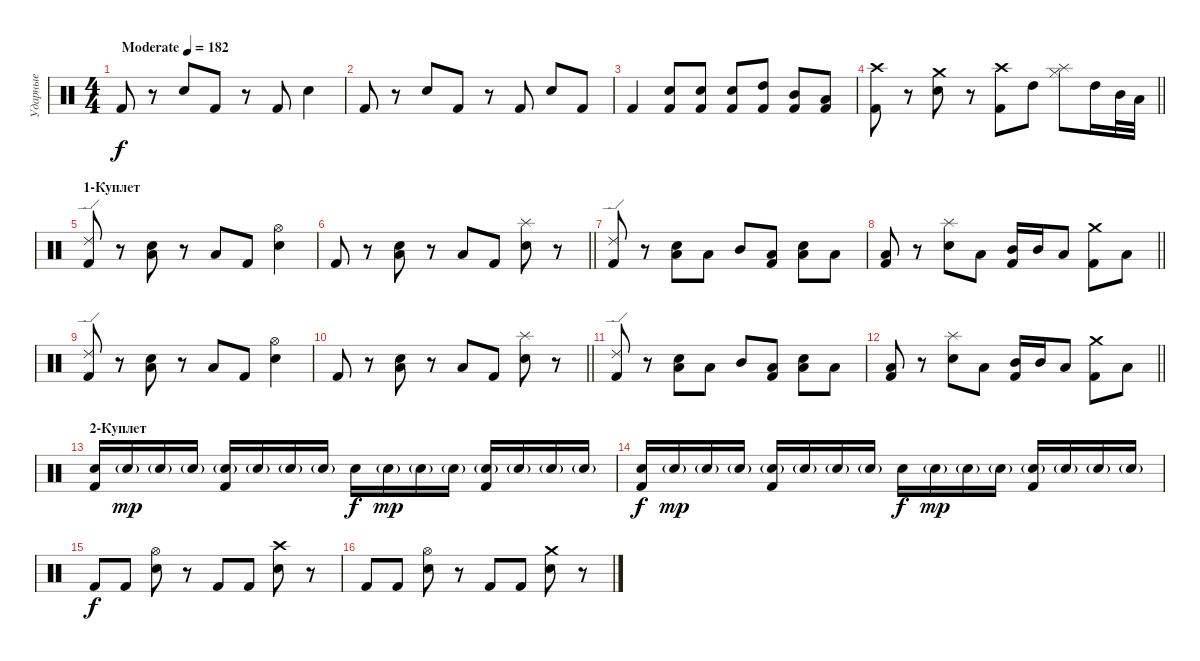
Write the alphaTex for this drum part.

\track ("Ударные" "Ударные") {instrument percussion}
\staff {score}
\articulation defaults
\ts (4 4)
\tempo (182 "Moderate")
\clef neutral
\ks c "Kick (hit) 2".8{dy f}
r.8 "Snare (hit) 2".8 "Kick (hit) 2".8 r.8 "Kick (hit) 2".8 "Snare (hit) 2".4 |
"Kick (hit) 2".8 r.8 "Snare (hit) 2".8 "Kick (hit) 2".8 r.8 "Kick (hit) 2".8 "Snare (hit) 2".8 "Kick (hit) 2".8 |
"Kick (hit) 2".4 ("Snare (hit) 2" "Kick (hit) 2").8 ("Snare (hit) 2" "Kick (hit) 2").8 ("Snare (hit) 2" "Kick (hit) 2").8 ("High Tom (hit)" "Kick (hit) 2").8 ("Mid Tom (hit)" "Kick (hit) 2").8 ("Low Tom (hit)" "Kick (hit) 2").8 |
\barLineRight lightlight
("Crash high (hit)" "Kick (hit) 2").8 r.8 ("Crash medium (hit)" "Snare (hit) 2").8 r.8 ("Crash high (hit)" "Kick (hit) 2").8 "High Tom (hit)".8 ("Splash (hit)" "Hi-Hat (closed)").8 "High Tom (hit)".16 "Mid Tom (hit)".32 "Low Tom (hit)".32 |
\section ("" "1-Куплет")
("Ride (edge) 2" "Kick (hit) 2").8 r.8 ("Snare (hit) 2" "Low Floor Tom (hit)").8 r.8 "Low Tom (hit)".8 "Kick (hit) 2".8 ("Snare (hit) 2" "Hi-Hat (open)").4 |
\barLineRight lightlight "Kick (hit) 2".8
r.8 ("Snare (hit) 2" "Low Floor Tom (hit)").8 r.8 "Low Tom (hit)".8 "Kick (hit) 2".8 ("Snare (hit) 2" "Splash (hit)").8 r.8 |
("Ride (edge) 2" "Kick (hit) 2").8 r.8 ("Low Floor Tom (hit)" "Snare (hit) 2").8 "Low Tom (hit)".8 "Mid Tom (hit)".8 ("Low Floor Tom (hit)" "Kick (hit) 2").8 ("Low Floor Tom (hit)" "Snare (hit) 2").8 "Low Floor Tom (hit)".8 |
\barLineRight lightlight
("Low Floor Tom (hit)" "Kick (hit) 2").8 r.8 ("Splash (hit)" "Snare (hit) 2").8 "Low Floor Tom (hit)".8 ("Mid Tom (hit)" "Kick (hit) 2").16 "Mid Tom (hit)".16 "Low Floor Tom (hit)".8 ("Crash medium (hit)" "Kick (hit) 2").8 "Low Tom (hit)".8 |
("Ride (edge) 2" "Kick (hit) 2").8 r.8 ("Snare (hit) 2" "Low Floor Tom (hit)").8 r.8 "Low Tom (hit)".8 "Kick (hit) 2".8 ("Snare (hit) 2" "Hi-Hat (open)").4 |
\barLineRight lightlight "Kick (hit) 2".8
r.8 ("Snare (hit) 2" "Low Floor Tom (hit)").8 r.8 "Low Tom (hit)".8 "Kick (hit) 2".8 ("Snare (hit) 2" "Splash (hit)").8 r.8 |
("Ride (edge) 2" "Kick (hit) 2").8 r.8 ("Low Floor Tom (hit)" "Snare (hit) 2").8 "Low Tom (hit)".8 "Mid Tom (hit)".8 ("Low Floor Tom (hit)" "Kick (hit) 2").8 ("Low Floor Tom (hit)" "Snare (hit) 2").8 "Low Floor Tom (hit)".8 |
\barLineRight lightlight
("Low Floor Tom (hit)" "Kick (hit) 2").8 r.8 ("Splash (hit)" "Snare (hit) 2").8 "Low Floor Tom (hit)".8 ("Mid Tom (hit)" "Kick (hit) 2").16 "Mid Tom (hit)".16 "Low Floor Tom (hit)".8 ("Crash medium (hit)" "Kick (hit) 2").8 "Low Tom (hit)".8 |
\section ("" "2-Куплет")
("Snare (hit) 2" "Kick (hit) 2").16 "Snare (hit) 2"{g}.16{dy mp} "Snare (hit) 2"{g}.16 "Snare (hit) 2"{g}.16 ("Snare (hit) 2"{g} "Kick (hit) 2").16 "Snare (hit) 2"{g}.16 "Snare (hit) 2"{g}.16 "Snare (hit) 2"{g}.16 "Snare (hit) 2".16{dy f} "Snare (hit) 2"{g}.16{dy mp} "Snare (hit) 2"{g}.16 "Snare (hit) 2"{g}.16 ("Snare (hit) 2"{g} "Kick (hit) 2").16 "Snare (hit) 2"{g}.16 "Snare (hit) 2"{g}.16 "Snare (hit) 2"{g}.16 |
("Snare (hit) 2" "Kick (hit) 2").16{dy f} "Snare (hit) 2"{g}.16{dy mp} "Snare (hit) 2"{g}.16 "Snare (hit) 2"{g}.16 ("Snare (hit) 2"{g} "Kick (hit) 2").16 "Snare (hit) 2"{g}.16 "Snare (hit) 2"{g}.16 "Snare (hit) 2"{g}.16 "Snare (hit) 2".16{dy f} "Snare (hit) 2"{g}.16{dy mp} "Snare (hit) 2"{g}.16 "Snare (hit) 2"{g}.16 ("Snare (hit) 2"{g} "Kick (hit) 2").16 "Snare (hit) 2"{g}.16 "Snare (hit) 2"{g}.16 "Snare (hit) 2"{g}.16 |
"Kick (hit) 2".8{dy f} "Kick (hit) 2".8 ("Hi-Hat (open)" "Snare (hit) 2").8 r.8 "Kick (hit) 2".8 "Kick (hit) 2".8 ("Crash high (hit)" "Snare (hit) 2").8 r.8 |
"Kick (hit) 2".8 "Kick (hit) 2".8 ("Hi-Hat (open)" "Snare (hit) 2").8 r.8 "Kick (hit) 2".8 "Kick (hit) 2".8 ("Crash medium (hit)" "Snare (hit) 2").8 r.8
